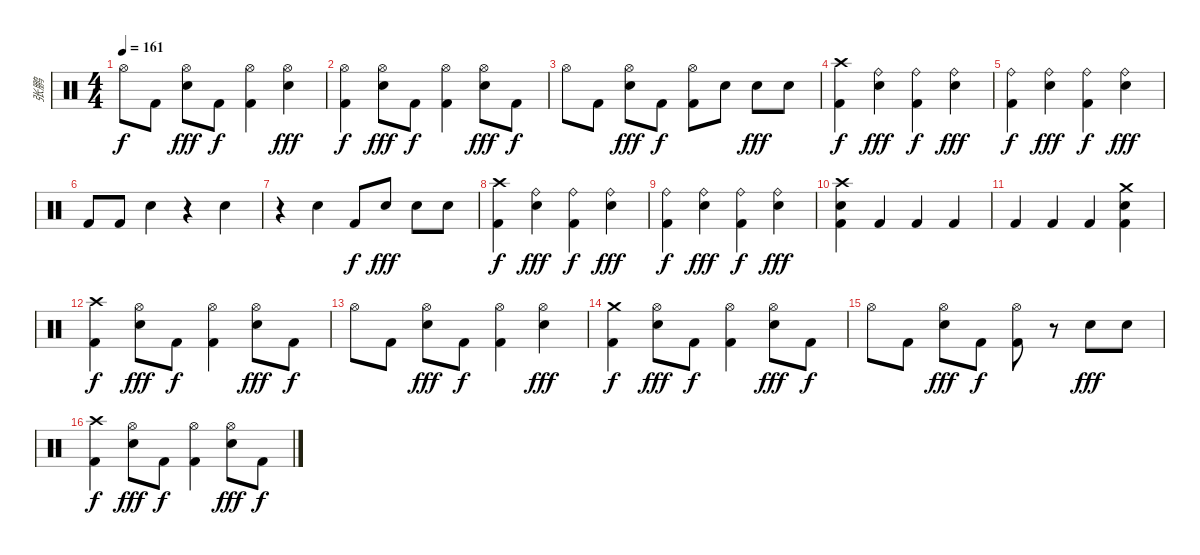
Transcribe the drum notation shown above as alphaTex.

\track ("张鹏" "张鹏") {instrument percussion}
\staff {score}
\articulation defaults
\ts (4 4)
\tempo 161
\clef neutral
\ks c "Hi-Hat (open)".8{dy f} "Kick (hit) 2".8
("Hi-Hat (open)" "Electric Snare (hit)").8{dy fff} "Kick (hit) 2".8{dy f} ("Hi-Hat (open)" "Kick (hit) 2").4 ("Hi-Hat (open)" "Electric Snare (hit)").4{dy fff} |
("Hi-Hat (open)" "Kick (hit) 2").4{dy f} ("Hi-Hat (open)" "Electric Snare (hit)").8{dy fff} "Kick (hit) 2".8{dy f} ("Hi-Hat (open)" "Kick (hit) 2").4 ("Hi-Hat (open)" "Electric Snare (hit)").8{dy fff} "Kick (hit) 2".8{dy f} |
"Hi-Hat (open)".8 "Kick (hit) 2".8 ("Hi-Hat (open)" "Electric Snare (hit)").8{dy fff} "Kick (hit) 2".8{dy f} ("Hi-Hat (open)" "Kick (hit) 2").8 "Electric Snare (hit)".8 "Electric Snare (hit)".8{dy fff} "Electric Snare (hit)".8 |
("Crash high (hit)" "Kick (hit) 2").4{dy f} ("Ride (bell)" "Electric Snare (hit)").4{dy fff} ("Ride (bell)" "Kick (hit) 2").4{dy f} ("Ride (bell)" "Electric Snare (hit)").4{dy fff} |
("Ride (bell)" "Kick (hit) 2").4{dy f} ("Ride (bell)" "Electric Snare (hit)").4{dy fff} ("Ride (bell)" "Kick (hit) 2").4{dy f} ("Ride (bell)" "Electric Snare (hit)").4{dy fff} |
"Kick (hit) 2".8 "Kick (hit) 2".8 "Electric Snare (hit)".4 r.4 "Electric Snare (hit)".4 |
r.4 "Electric Snare (hit)".4 "Kick (hit) 2".8{dy f} "Electric Snare (hit)".8{dy fff} "Electric Snare (hit)".8 "Electric Snare (hit)".8 |
("Crash high (hit)" "Kick (hit) 2").4{dy f} ("Ride (bell)" "Electric Snare (hit)").4{dy fff} ("Ride (bell)" "Kick (hit) 2").4{dy f} ("Ride (bell)" "Electric Snare (hit)").4{dy fff} |
("Ride (bell)" "Kick (hit) 2").4{dy f} ("Ride (bell)" "Electric Snare (hit)").4{dy fff} ("Ride (bell)" "Kick (hit) 2").4{dy f} ("Ride (bell)" "Electric Snare (hit)").4{dy fff} |
("Crash high (hit)" "Electric Snare (hit)" "Kick (hit) 2").4 "Kick (hit) 2".4 "Kick (hit) 2".4 "Kick (hit) 2".4 |
"Kick (hit) 2".4 "Kick (hit) 2".4 "Kick (hit) 2".4 ("Crash medium (hit)" "Electric Snare (hit)" "Kick (hit) 2").4 |
("Crash high (hit)" "Kick (hit) 2").4{dy f} ("Hi-Hat (open)" "Electric Snare (hit)").8{dy fff} "Kick (hit) 2".8{dy f} ("Hi-Hat (open)" "Kick (hit) 2").4 ("Hi-Hat (open)" "Electric Snare (hit)").8{dy fff} "Kick (hit) 2".8{dy f} |
"Hi-Hat (open)".8 "Kick (hit) 2".8 ("Hi-Hat (open)" "Electric Snare (hit)").8{dy fff} "Kick (hit) 2".8{dy f} ("Hi-Hat (open)" "Kick (hit) 2").4 ("Hi-Hat (open)" "Electric Snare (hit)").4{dy fff} |
("Crash medium (hit)" "Kick (hit) 2").4{dy f} ("Hi-Hat (open)" "Electric Snare (hit)").8{dy fff} "Kick (hit) 2".8{dy f} ("Hi-Hat (open)" "Kick (hit) 2").4 ("Hi-Hat (open)" "Electric Snare (hit)").8{dy fff} "Kick (hit) 2".8{dy f} |
"Hi-Hat (open)".8 "Kick (hit) 2".8 ("Hi-Hat (open)" "Electric Snare (hit)").8{dy fff} "Kick (hit) 2".8{dy f} ("Hi-Hat (open)" "Kick (hit) 2").8 r.8 "Electric Snare (hit)".8{dy fff} "Electric Snare (hit)".8 |
("Crash high (hit)" "Kick (hit) 2").4{dy f} ("Hi-Hat (open)" "Electric Snare (hit)").8{dy fff} "Kick (hit) 2".8{dy f} ("Hi-Hat (open)" "Kick (hit) 2").4 ("Hi-Hat (open)" "Electric Snare (hit)").8{dy fff} "Kick (hit) 2".8{dy f}
